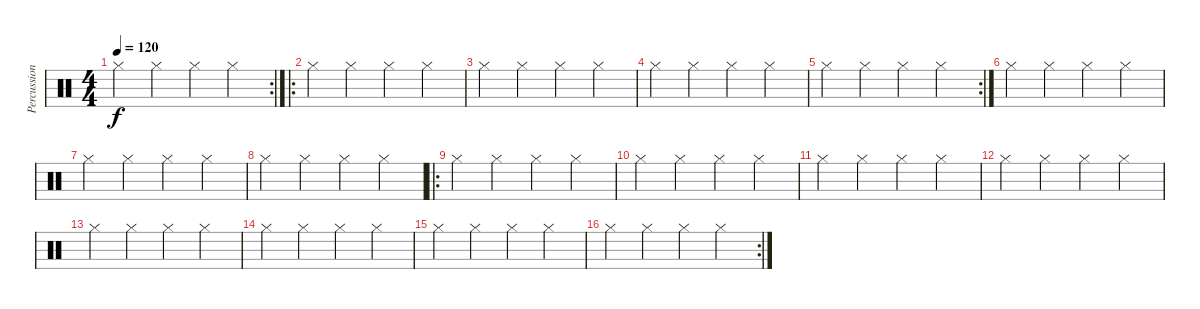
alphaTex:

\track ("Percussioni" "Percussion") {instrument percussion}
\staff {score}
\articulation defaults
\rc 2
\ts (4 4)
\tempo 120
\clef neutral
\ks c "Hi-Hat (closed)".4{dy f} "Hi-Hat (closed)".4 "Hi-Hat (closed)".4 "Hi-Hat (closed)".4
|
\ro "Hi-Hat (closed)".4 "Hi-Hat (closed)".4 "Hi-Hat (closed)".4 "Hi-Hat (closed)".4
|
"Hi-Hat (closed)".4 "Hi-Hat (closed)".4 "Hi-Hat (closed)".4 "Hi-Hat (closed)".4 |
"Hi-Hat (closed)".4 "Hi-Hat (closed)".4 "Hi-Hat (closed)".4 "Hi-Hat (closed)".4 |
\rc 2 "Hi-Hat (closed)".4 "Hi-Hat (closed)".4 "Hi-Hat (closed)".4 "Hi-Hat (closed)".4
|
"Hi-Hat (closed)".4 "Hi-Hat (closed)".4 "Hi-Hat (closed)".4 "Hi-Hat (closed)".4 |
"Hi-Hat (closed)".4 "Hi-Hat (closed)".4 "Hi-Hat (closed)".4 "Hi-Hat (closed)".4 |
"Hi-Hat (closed)".4 "Hi-Hat (closed)".4 "Hi-Hat (closed)".4 "Hi-Hat (closed)".4 |
\ro "Hi-Hat (closed)".4 "Hi-Hat (closed)".4 "Hi-Hat (closed)".4 "Hi-Hat (closed)".4
|
"Hi-Hat (closed)".4 "Hi-Hat (closed)".4 "Hi-Hat (closed)".4 "Hi-Hat (closed)".4 |
"Hi-Hat (closed)".4 "Hi-Hat (closed)".4 "Hi-Hat (closed)".4 "Hi-Hat (closed)".4 |
"Hi-Hat (closed)".4 "Hi-Hat (closed)".4 "Hi-Hat (closed)".4 "Hi-Hat (closed)".4 |
"Hi-Hat (closed)".4 "Hi-Hat (closed)".4 "Hi-Hat (closed)".4 "Hi-Hat (closed)".4 |
"Hi-Hat (closed)".4 "Hi-Hat (closed)".4 "Hi-Hat (closed)".4 "Hi-Hat (closed)".4 |
"Hi-Hat (closed)".4 "Hi-Hat (closed)".4 "Hi-Hat (closed)".4 "Hi-Hat (closed)".4 |
\rc 2 "Hi-Hat (closed)".4 "Hi-Hat (closed)".4 "Hi-Hat (closed)".4 "Hi-Hat (closed)".4
